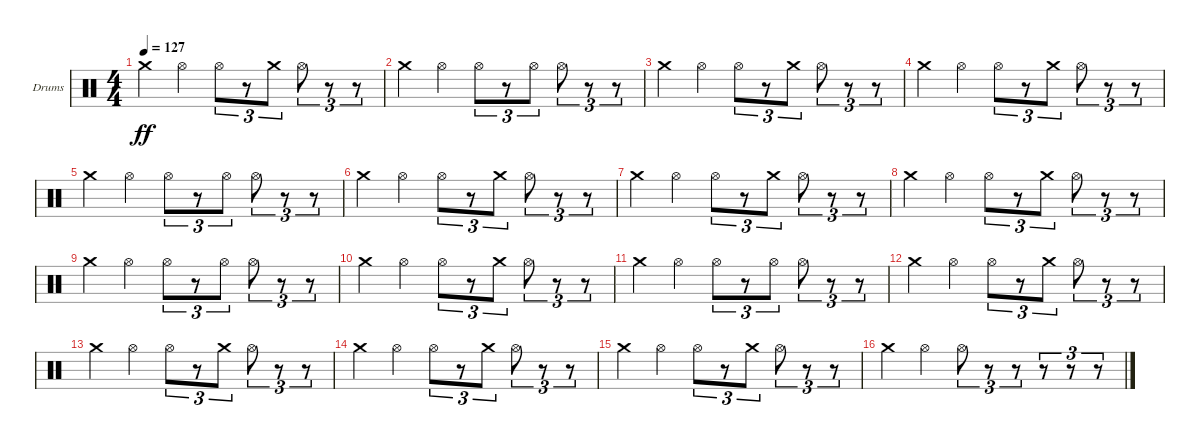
\defaultSystemsLayout 4
\bracketExtendMode groupsimilarinstruments
\firstSystemTrackNameOrientation horizontal
\otherSystemsTrackNameOrientation horizontal
\track ("Drumkit" "Drums") {instrument percussion}
\staff {score}
\articulation defaults
\ts (4 4)
\tempo 127
\clef neutral
\scale
0.333333
\ks c "Crash medium (hit)".4{dy ff} "Hi-Hat (open)".4 "Hi-Hat (open)".8{tu (3 2)}
r.8{tu (3 2)} "Crash medium (hit)".8{tu (3 2)} "Hi-Hat (open)".8{tu (3 2)} r.8{tu (3 2)} r.8{tu (3 2)} |
\scale
0.333333 "Crash medium (hit)".4 "Hi-Hat (open)".4 "Hi-Hat (open)".8{tu (3 2)} r.8{tu (3 2)} "Hi-Hat (open)".8{tu (3 2)} "Hi-Hat (open)".8{tu (3 2)} r.8{tu (3 2)} r.8{tu (3 2)} |
\scale
0.333333 "Crash medium (hit)".4 "Hi-Hat (open)".4 "Hi-Hat (open)".8{tu (3 2)} r.8{tu (3 2)} "Crash medium (hit)".8{tu (3 2)} "Hi-Hat (open)".8{tu (3 2)} r.8{tu (3 2)} r.8{tu (3 2)} |
\scale
0.333333 "Crash medium (hit)".4 "Hi-Hat (open)".4 "Hi-Hat (open)".8{tu (3 2)} r.8{tu (3 2)} "Crash medium (hit)".8{tu (3 2)} "Hi-Hat (open)".8{tu (3 2)} r.8{tu (3 2)} r.8{tu (3 2)} |
\scale
0.333333 "Crash medium (hit)".4 "Hi-Hat (open)".4 "Hi-Hat (open)".8{tu (3 2)} r.8{tu (3 2)} "Hi-Hat (open)".8{tu (3 2)} "Hi-Hat (open)".8{tu (3 2)} r.8{tu (3 2)} r.8{tu (3 2)} |
\scale
0.333333 "Crash medium (hit)".4 "Hi-Hat (open)".4 "Hi-Hat (open)".8{tu (3 2)} r.8{tu (3 2)} "Crash medium (hit)".8{tu (3 2)} "Hi-Hat (open)".8{tu (3 2)} r.8{tu (3 2)} r.8{tu (3 2)} |
\scale
0.333333 "Crash medium (hit)".4 "Hi-Hat (open)".4 "Hi-Hat (open)".8{tu (3 2)} r.8{tu (3 2)} "Crash medium (hit)".8{tu (3 2)} "Hi-Hat (open)".8{tu (3 2)} r.8{tu (3 2)} r.8{tu (3 2)} |
\scale
0.333333 "Crash medium (hit)".4 "Hi-Hat (open)".4 "Hi-Hat (open)".8{tu (3 2)} r.8{tu (3 2)} "Crash medium (hit)".8{tu (3 2)} "Hi-Hat (open)".8{tu (3 2)} r.8{tu (3 2)} r.8{tu (3 2)} |
\scale
0.333333 "Crash medium (hit)".4 "Hi-Hat (open)".4 "Hi-Hat (open)".8{tu (3 2)} r.8{tu (3 2)} "Hi-Hat (open)".8{tu (3 2)} "Hi-Hat (open)".8{tu (3 2)} r.8{tu (3 2)} r.8{tu (3 2)} |
\scale
0.333333 "Crash medium (hit)".4 "Hi-Hat (open)".4 "Hi-Hat (open)".8{tu (3 2)} r.8{tu (3 2)} "Crash medium (hit)".8{tu (3 2)} "Hi-Hat (open)".8{tu (3 2)} r.8{tu (3 2)} r.8{tu (3 2)} |
\scale
0.333333 "Crash medium (hit)".4 "Hi-Hat (open)".4 "Hi-Hat (open)".8{tu (3 2)} r.8{tu (3 2)} "Hi-Hat (open)".8{tu (3 2)} "Hi-Hat (open)".8{tu (3 2)} r.8{tu (3 2)} r.8{tu (3 2)} |
\scale
0.333333 "Crash medium (hit)".4 "Hi-Hat (open)".4 "Hi-Hat (open)".8{tu (3 2)} r.8{tu (3 2)} "Crash medium (hit)".8{tu (3 2)} "Hi-Hat (open)".8{tu (3 2)} r.8{tu (3 2)} r.8{tu (3 2)} |
\scale
0.333333 "Crash medium (hit)".4 "Hi-Hat (open)".4 "Hi-Hat (open)".8{tu (3 2)} r.8{tu (3 2)} "Crash medium (hit)".8{tu (3 2)} "Hi-Hat (open)".8{tu (3 2)} r.8{tu (3 2)} r.8{tu (3 2)} |
\scale
0.333333 "Crash medium (hit)".4 "Hi-Hat (open)".4 "Hi-Hat (open)".8{tu (3 2)} r.8{tu (3 2)} "Crash medium (hit)".8{tu (3 2)} "Hi-Hat (open)".8{tu (3 2)} r.8{tu (3 2)} r.8{tu (3 2)} |
\scale
0.333333 "Crash medium (hit)".4 "Hi-Hat (open)".4 "Hi-Hat (open)".8{tu (3 2)} r.8{tu (3 2)} "Crash medium (hit)".8{tu (3 2)} "Hi-Hat (open)".8{tu (3 2)} r.8{tu (3 2)} r.8{tu (3 2)} |
\scale
0.333333 "Crash medium (hit)".4 "Hi-Hat (open)".4 "Hi-Hat (open)".8{tu (3 2)} r.8{tu (3 2)} r.8{tu (3 2)} r.8{tu (3 2)} r.8{tu (3 2)} r.8{tu (3 2)}
